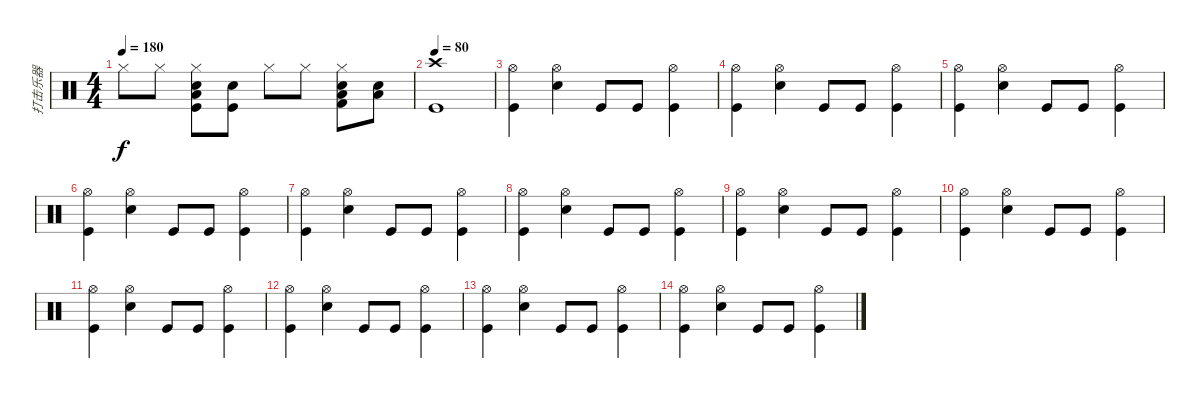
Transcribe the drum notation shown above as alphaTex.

\track ("打击乐器" "打击乐器") {instrument percussion}
\staff {score}
\articulation defaults
\ts (4 4)
\tempo 180
\clef neutral
\ks c "Hi-Hat (closed)".8{dy f} "Hi-Hat (closed)".8
("Snare (hit) 2" "Low Tom (hit)" "Hi-Hat (closed)" "Kick (hit)").8 ("Snare (hit) 2" "Kick (hit)").8 "Hi-Hat (closed)".8 "Hi-Hat (closed)".8 ("Snare (hit) 2" "Low Tom (hit)" "Hi-Hat (closed)" "Kick (hit) 2").8 ("Snare (hit) 2" "Low Tom (hit)").8 |
\tempo 80
("Crash high (hit)" "Kick (hit)").1 |
("Hi-Hat (open)" "Kick (hit)").4 ("Snare (hit) 2" "Hi-Hat (open)").4 "Kick (hit)".8 "Kick (hit)".8 ("Hi-Hat (open)" "Kick (hit)").4 |
("Hi-Hat (open)" "Kick (hit)").4 ("Snare (hit) 2" "Hi-Hat (open)").4 "Kick (hit)".8 "Kick (hit)".8 ("Hi-Hat (open)" "Kick (hit)").4 |
("Hi-Hat (open)" "Kick (hit)").4 ("Snare (hit) 2" "Hi-Hat (open)").4 "Kick (hit)".8 "Kick (hit)".8 ("Hi-Hat (open)" "Kick (hit)").4 |
("Hi-Hat (open)" "Kick (hit)").4 ("Snare (hit) 2" "Hi-Hat (open)").4 "Kick (hit)".8 "Kick (hit)".8 ("Hi-Hat (open)" "Kick (hit)").4 |
("Hi-Hat (open)" "Kick (hit)").4 ("Snare (hit) 2" "Hi-Hat (open)").4 "Kick (hit)".8 "Kick (hit)".8 ("Hi-Hat (open)" "Kick (hit)").4 |
("Hi-Hat (open)" "Kick (hit)").4 ("Snare (hit) 2" "Hi-Hat (open)").4 "Kick (hit)".8 "Kick (hit)".8 ("Hi-Hat (open)" "Kick (hit)").4 |
("Hi-Hat (open)" "Kick (hit)").4 ("Snare (hit) 2" "Hi-Hat (open)").4 "Kick (hit)".8 "Kick (hit)".8 ("Hi-Hat (open)" "Kick (hit)").4 |
("Hi-Hat (open)" "Kick (hit)").4 ("Snare (hit) 2" "Hi-Hat (open)").4 "Kick (hit)".8 "Kick (hit)".8 ("Hi-Hat (open)" "Kick (hit)").4 |
("Hi-Hat (open)" "Kick (hit)").4 ("Snare (hit) 2" "Hi-Hat (open)").4 "Kick (hit)".8 "Kick (hit)".8 ("Hi-Hat (open)" "Kick (hit)").4 |
("Hi-Hat (open)" "Kick (hit)").4 ("Snare (hit) 2" "Hi-Hat (open)").4 "Kick (hit)".8 "Kick (hit)".8 ("Hi-Hat (open)" "Kick (hit)").4 |
("Hi-Hat (open)" "Kick (hit)").4 ("Snare (hit) 2" "Hi-Hat (open)").4 "Kick (hit)".8 "Kick (hit)".8 ("Hi-Hat (open)" "Kick (hit)").4 |
("Hi-Hat (open)" "Kick (hit)").4 ("Snare (hit) 2" "Hi-Hat (open)").4 "Kick (hit)".8 "Kick (hit)".8 ("Hi-Hat (open)" "Kick (hit)").4
